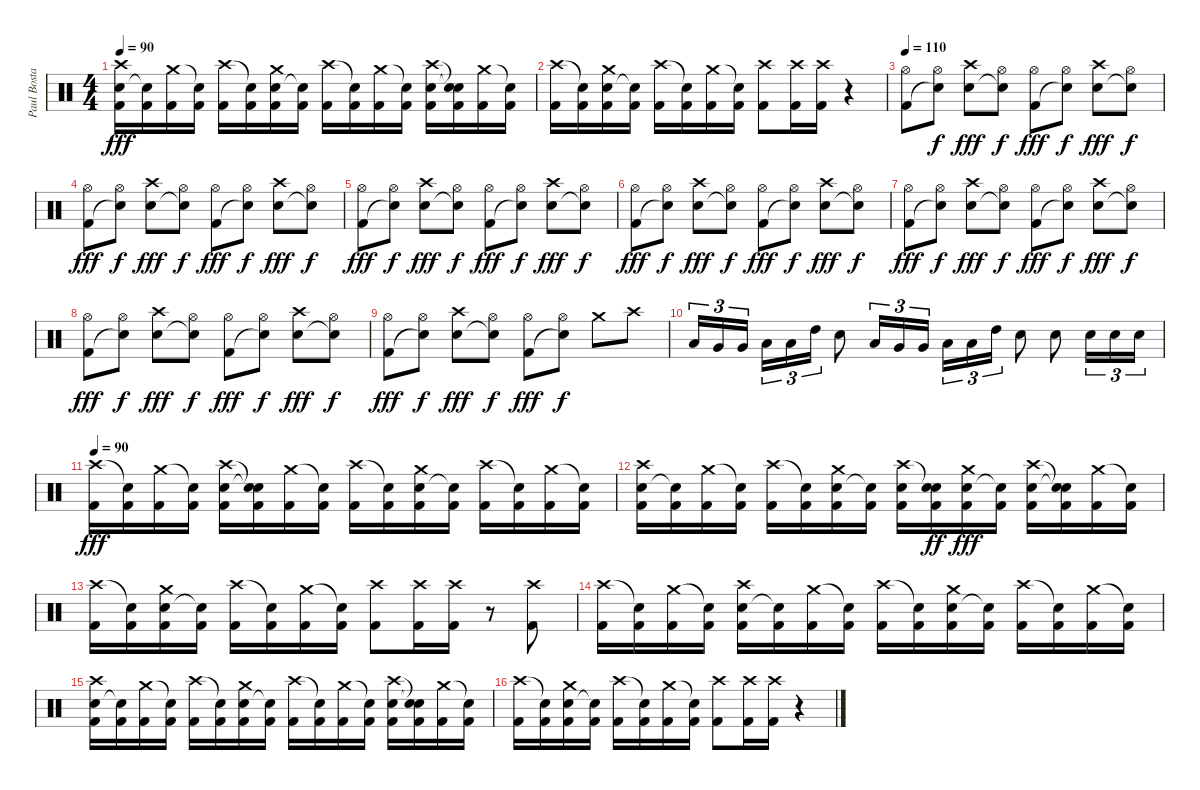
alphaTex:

\track ("Paul Bostaph" "Paul Bosta") {instrument percussion}
\staff {score}
\articulation defaults
\ts (4 4)
\tempo 90
\clef neutral
\ks c
("Kick (hit) 2" "Snare (hit) 2" "Crash high (hit)").16{dy fff} ("Kick (hit) 2" "Snare (hit)"{t}).16 ("Kick (hit) 2" "Crash medium (hit)").16 ("Kick (hit) 2" "Snare (hit)"{t}).16 ("Kick (hit) 2" "Crash high (hit)").16 ("Kick (hit) 2" "Snare (hit)"{t}).16 ("Kick (hit) 2" "Snare (hit) 2" "Crash medium (hit)").16 ("Kick (hit) 2" "Snare (hit)"{t}).16 ("Kick (hit) 2" "Crash high (hit)").16 ("Kick (hit) 2" "Snare (hit)"{t}).16 ("Kick (hit) 2" "Crash medium (hit)").16 ("Kick (hit) 2" "Snare (hit)"{t}).16 ("Kick (hit) 2" "Snare (hit) 2" "Crash high (hit)").16 ("Kick (hit) 2" "Snare (hit)"{t} "Snare (hit)"{t}).16 ("Kick (hit) 2" "Crash medium (hit)").16 ("Kick (hit) 2" "Snare (hit)"{t}).16 |
("Kick (hit) 2" "Crash high (hit)").16 ("Kick (hit) 2" "Snare (hit)"{t}).16 ("Kick (hit) 2" "Snare (hit) 2" "Crash medium (hit)").16 ("Kick (hit) 2" "Snare (hit)"{t}).16 ("Kick (hit) 2" "Crash high (hit)").16 ("Kick (hit) 2" "Snare (hit)"{t}).16 ("Kick (hit) 2" "Crash medium (hit)").16 ("Kick (hit) 2" "Snare (hit)"{t}).16 ("Kick (hit) 2" "Crash high (hit)").8 ("Kick (hit) 2" "Crash high (hit)").16 ("Kick (hit) 2" "Crash high (hit)").16 r.4 |
\tempo 110
("Kick (hit) 2" "Hi-Hat (open)").8 ("Snare (hit)"{t} "Hi-Hat (open)").8{dy f} ("Snare (hit) 2" "Crash high (hit)").8{dy fff} ("Snare (hit)"{t} "Hi-Hat (open)").8{dy f} ("Kick (hit) 2" "Hi-Hat (open)").8{dy fff} ("Snare (hit)"{t} "Hi-Hat (open)").8{dy f} ("Snare (hit) 2" "Crash high (hit)").8{dy fff} ("Snare (hit)"{t} "Hi-Hat (open)").8{dy f} |
("Kick (hit) 2" "Hi-Hat (open)").8{dy fff} ("Snare (hit)"{t} "Hi-Hat (open)").8{dy f} ("Snare (hit) 2" "Crash high (hit)").8{dy fff} ("Snare (hit)"{t} "Hi-Hat (open)").8{dy f} ("Kick (hit) 2" "Hi-Hat (open)").8{dy fff} ("Snare (hit)"{t} "Hi-Hat (open)").8{dy f} ("Snare (hit) 2" "Crash high (hit)").8{dy fff} ("Snare (hit)"{t} "Hi-Hat (open)").8{dy f} |
("Kick (hit) 2" "Hi-Hat (open)").8{dy fff} ("Snare (hit)"{t} "Hi-Hat (open)").8{dy f} ("Snare (hit) 2" "Crash high (hit)").8{dy fff} ("Snare (hit)"{t} "Hi-Hat (open)").8{dy f} ("Kick (hit) 2" "Hi-Hat (open)").8{dy fff} ("Snare (hit)"{t} "Hi-Hat (open)").8{dy f} ("Snare (hit) 2" "Crash high (hit)").8{dy fff} ("Snare (hit)"{t} "Hi-Hat (open)").8{dy f} |
("Kick (hit) 2" "Hi-Hat (open)").8{dy fff} ("Snare (hit)"{t} "Hi-Hat (open)").8{dy f} ("Snare (hit) 2" "Crash high (hit)").8{dy fff} ("Snare (hit)"{t} "Hi-Hat (open)").8{dy f} ("Kick (hit) 2" "Hi-Hat (open)").8{dy fff} ("Snare (hit)"{t} "Hi-Hat (open)").8{dy f} ("Snare (hit) 2" "Crash high (hit)").8{dy fff} ("Snare (hit)"{t} "Hi-Hat (open)").8{dy f} |
("Kick (hit) 2" "Hi-Hat (open)").8{dy fff} ("Snare (hit)"{t} "Hi-Hat (open)").8{dy f} ("Snare (hit) 2" "Crash high (hit)").8{dy fff} ("Snare (hit)"{t} "Hi-Hat (open)").8{dy f} ("Kick (hit) 2" "Hi-Hat (open)").8{dy fff} ("Snare (hit)"{t} "Hi-Hat (open)").8{dy f} ("Snare (hit) 2" "Crash high (hit)").8{dy fff} ("Snare (hit)"{t} "Hi-Hat (open)").8{dy f} |
("Kick (hit) 2" "Hi-Hat (open)").8{dy fff} ("Snare (hit)"{t} "Hi-Hat (open)").8{dy f} ("Snare (hit) 2" "Crash high (hit)").8{dy fff} ("Snare (hit)"{t} "Hi-Hat (open)").8{dy f} ("Kick (hit) 2" "Hi-Hat (open)").8{dy fff} ("Snare (hit)"{t} "Hi-Hat (open)").8{dy f} ("Snare (hit) 2" "Crash high (hit)").8{dy fff} ("Snare (hit)"{t} "Hi-Hat (open)").8{dy f} |
("Kick (hit) 2" "Hi-Hat (open)").8{dy fff} ("Snare (hit)"{t} "Hi-Hat (open)").8{dy f} ("Snare (hit) 2" "Crash high (hit)").8{dy fff} ("Snare (hit)"{t} "Hi-Hat (open)").8{dy f} ("Kick (hit) 2" "Hi-Hat (open)").8{dy fff} ("Snare (hit)"{t} "Hi-Hat (open)").8{dy f} "Crash medium (hit)".8 "Crash high (hit)".8 |
"Low Floor Tom (hit)".16{tu (3 2)} "Very Low Tom (hit)".16{tu (3 2)} "Very Low Tom (hit)".16{tu (3 2)} "Low Tom (hit)".16{tu (3 2)} "Low Tom (hit)".16{tu (3 2)} "High Tom (hit)".16{tu (3 2)} "Snare (hit) 2".8 "Low Floor Tom (hit)".16{tu (3 2)} "Very Low Tom (hit)".16{tu (3 2)} "Very Low Tom (hit)".16{tu (3 2)} "Low Tom (hit)".16{tu (3 2)} "Low Tom (hit)".16{tu (3 2)} "High Tom (hit)".16{tu (3 2)} "Snare (hit) 2".8 "Snare (hit) 2".8 "Snare (hit) 2".16{tu (3 2)} "Snare (hit) 2".16{tu (3 2)} "Snare (hit) 2".16{tu (3 2)} |
\tempo 90
("Kick (hit) 2" "Crash high (hit)").16{dy fff} ("Kick (hit) 2" "Snare (hit)"{t}).16 ("Kick (hit) 2" "Crash medium (hit)").16 ("Kick (hit) 2" "Snare (hit)"{t}).16 ("Kick (hit) 2" "Snare (hit) 2" "Crash high (hit)").16 ("Kick (hit) 2" "Snare (hit)"{t} "Snare (hit)"{t}).16 ("Kick (hit) 2" "Crash medium (hit)").16 ("Kick (hit) 2" "Snare (hit)"{t}).16 ("Kick (hit) 2" "Crash high (hit)").16 ("Kick (hit) 2" "Snare (hit)"{t}).16 ("Kick (hit) 2" "Snare (hit) 2" "Crash medium (hit)").16 ("Kick (hit) 2" "Snare (hit)"{t}).16 ("Kick (hit) 2" "Crash high (hit)").16 ("Kick (hit) 2" "Snare (hit)"{t}).16 ("Kick (hit) 2" "Crash medium (hit)").16 ("Kick (hit) 2" "Snare (hit)"{t}).16 |
("Kick (hit) 2" "Snare (hit) 2" "Crash high (hit)").16 ("Kick (hit) 2" "Snare (hit)"{t}).16 ("Kick (hit) 2" "Crash medium (hit)").16 ("Kick (hit) 2" "Snare (hit)"{t}).16 ("Kick (hit) 2" "Crash high (hit)").16 ("Kick (hit) 2" "Snare (hit)"{t}).16 ("Kick (hit) 2" "Snare (hit) 2" "Crash medium (hit)").16 ("Kick (hit) 2" "Snare (hit)"{t}).16 ("Kick (hit) 2" "Snare (hit) 2" "Crash high (hit)").16 ("Kick (hit) 2" "Snare (hit) 2" "Snare (hit)"{t}).16{dy ff} ("Kick (hit) 2" "Snare (hit) 2" "Crash medium (hit)").16{dy fff} ("Kick (hit) 2" "Snare (hit)"{t}).16 ("Kick (hit) 2" "Snare (hit) 2" "Crash high (hit)").16 ("Kick (hit) 2" "Snare (hit)"{t} "Snare (hit)"{t}).16 ("Kick (hit) 2" "Crash medium (hit)").16 ("Kick (hit) 2" "Snare (hit)"{t}).16 |
("Kick (hit) 2" "Crash high (hit)").16 ("Kick (hit) 2" "Snare (hit)"{t}).16 ("Kick (hit) 2" "Snare (hit) 2" "Crash medium (hit)").16 ("Kick (hit) 2" "Snare (hit)"{t}).16 ("Kick (hit) 2" "Crash high (hit)").16 ("Kick (hit) 2" "Snare (hit)"{t}).16 ("Kick (hit) 2" "Crash medium (hit)").16 ("Kick (hit) 2" "Snare (hit)"{t}).16 ("Kick (hit) 2" "Crash high (hit)").8 ("Kick (hit) 2" "Crash high (hit)").16 ("Kick (hit) 2" "Crash high (hit)").16 r.8 ("Kick (hit) 2" "Crash high (hit)").8 |
("Kick (hit) 2" "Crash high (hit)").16 ("Kick (hit) 2" "Snare (hit)"{t}).16 ("Kick (hit) 2" "Crash medium (hit)").16 ("Kick (hit) 2" "Snare (hit)"{t}).16 ("Kick (hit) 2" "Snare (hit) 2" "Crash high (hit)").16 ("Kick (hit) 2" "Snare (hit)"{t}).16 ("Kick (hit) 2" "Crash medium (hit)").16 ("Kick (hit) 2" "Snare (hit)"{t}).16 ("Kick (hit) 2" "Crash high (hit)").16 ("Kick (hit) 2" "Snare (hit)"{t}).16 ("Kick (hit) 2" "Snare (hit) 2" "Crash medium (hit)").16 ("Kick (hit) 2" "Snare (hit)"{t}).16 ("Kick (hit) 2" "Crash high (hit)").16 ("Kick (hit) 2" "Snare (hit)"{t}).16 ("Kick (hit) 2" "Crash medium (hit)").16 ("Kick (hit) 2" "Snare (hit)"{t}).16 |
("Kick (hit) 2" "Snare (hit) 2" "Crash high (hit)").16 ("Kick (hit) 2" "Snare (hit)"{t}).16 ("Kick (hit) 2" "Crash medium (hit)").16 ("Kick (hit) 2" "Snare (hit)"{t}).16 ("Kick (hit) 2" "Crash high (hit)").16 ("Kick (hit) 2" "Snare (hit)"{t}).16 ("Kick (hit) 2" "Snare (hit) 2" "Crash medium (hit)").16 ("Kick (hit) 2" "Snare (hit)"{t}).16 ("Kick (hit) 2" "Crash high (hit)").16 ("Kick (hit) 2" "Snare (hit)"{t}).16 ("Kick (hit) 2" "Crash medium (hit)").16 ("Kick (hit) 2" "Snare (hit)"{t}).16 ("Kick (hit) 2" "Snare (hit) 2" "Crash high (hit)").16 ("Kick (hit) 2" "Snare (hit)"{t} "Snare (hit)"{t}).16 ("Kick (hit) 2" "Crash medium (hit)").16 ("Kick (hit) 2" "Snare (hit)"{t}).16 |
("Kick (hit) 2" "Crash high (hit)").16 ("Kick (hit) 2" "Snare (hit)"{t}).16 ("Kick (hit) 2" "Snare (hit) 2" "Crash medium (hit)").16 ("Kick (hit) 2" "Snare (hit)"{t}).16 ("Kick (hit) 2" "Crash high (hit)").16 ("Kick (hit) 2" "Snare (hit)"{t}).16 ("Kick (hit) 2" "Crash medium (hit)").16 ("Kick (hit) 2" "Snare (hit)"{t}).16 ("Kick (hit) 2" "Crash high (hit)").8 ("Kick (hit) 2" "Crash high (hit)").16 ("Kick (hit) 2" "Crash high (hit)").16 r.4
